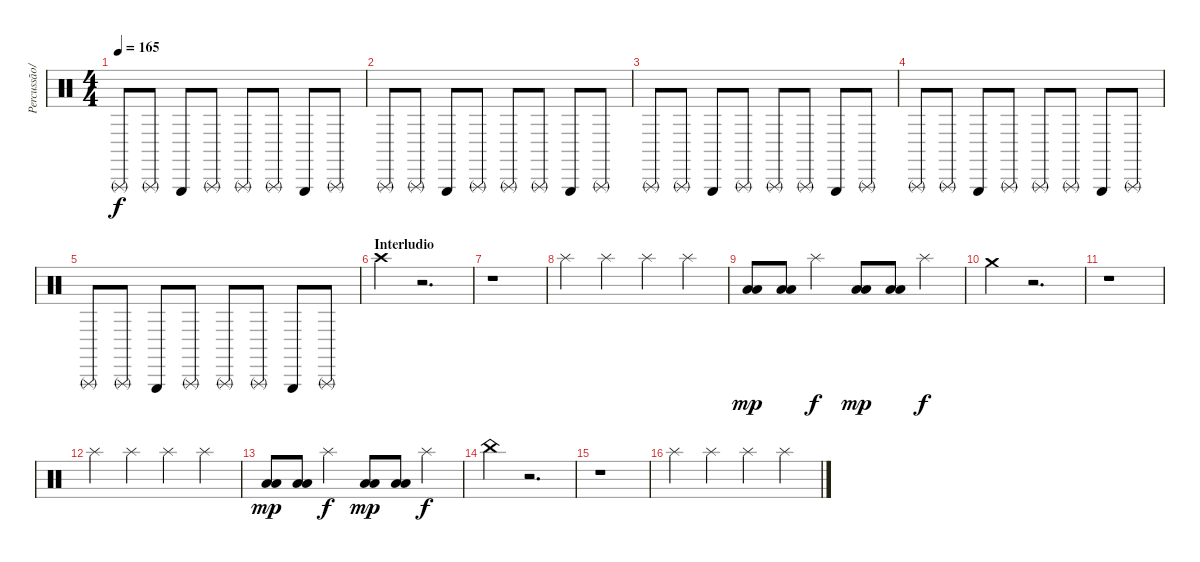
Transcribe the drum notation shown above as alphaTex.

\track ("Percussão/DJ" "Percussão/") {instrument percussion}
\staff {score}
\articulation defaults
\ts (4 4)
\tempo 165
\clef neutral
\ks c "Triangle (rnute)".8{dy f} "Triangle (rnute)".8 "Triangle (hit)".8 "Triangle (rnute)".8 "Triangle (rnute)".8 "Triangle (rnute)".8 "Triangle (hit)".8 "Triangle (rnute)".8
|
"Triangle (rnute)".8 "Triangle (rnute)".8 "Triangle (hit)".8 "Triangle (rnute)".8 "Triangle (rnute)".8 "Triangle (rnute)".8 "Triangle (hit)".8 "Triangle (rnute)".8 |
"Triangle (rnute)".8 "Triangle (rnute)".8 "Triangle (hit)".8 "Triangle (rnute)".8 "Triangle (rnute)".8 "Triangle (rnute)".8 "Triangle (hit)".8 "Triangle (rnute)".8 |
"Triangle (rnute)".8 "Triangle (rnute)".8 "Triangle (hit)".8 "Triangle (rnute)".8 "Triangle (rnute)".8 "Triangle (rnute)".8 "Triangle (hit)".8 "Triangle (rnute)".8 |
"Triangle (rnute)".8 "Triangle (rnute)".8 "Triangle (hit)".8 "Triangle (rnute)".8 "Triangle (rnute)".8 "Triangle (rnute)".8 "Triangle (hit)".8 "Triangle (rnute)".8 |
\section ("" "Interludio")
"Crash high (hit)".4 r.2{d} |
r.1 |
"Splash (hit)".4 "Splash (hit)".4 "Splash (hit)".4 "Splash (hit)".4 |
("Low Tom (hit)" "Low Floor Tom (hit)").8{dy mp} ("Low Tom (hit)" "Low Floor Tom (hit)").8 "Splash (hit)".4{dy f} ("Low Tom (hit)" "Low Floor Tom (hit)").8{dy mp} ("Low Tom (hit)" "Low Floor Tom (hit)").8 "Splash (hit)".4{dy f} |
"Crash medium (hit)".4 r.2{d} |
r.1 |
"Splash (hit)".4 "Splash (hit)".4 "Splash (hit)".4 "Splash (hit)".4 |
("Low Tom (hit)" "Low Floor Tom (hit)").8{dy mp} ("Low Tom (hit)" "Low Floor Tom (hit)").8 "Splash (hit)".4{dy f} ("Low Tom (hit)" "Low Floor Tom (hit)").8{dy mp} ("Low Tom (hit)" "Low Floor Tom (hit)").8 "Splash (hit)".4{dy f} |
"China (hit)".4 r.2{d} |
r.1 |
"Splash (hit)".4 "Splash (hit)".4 "Splash (hit)".4 "Splash (hit)".4
